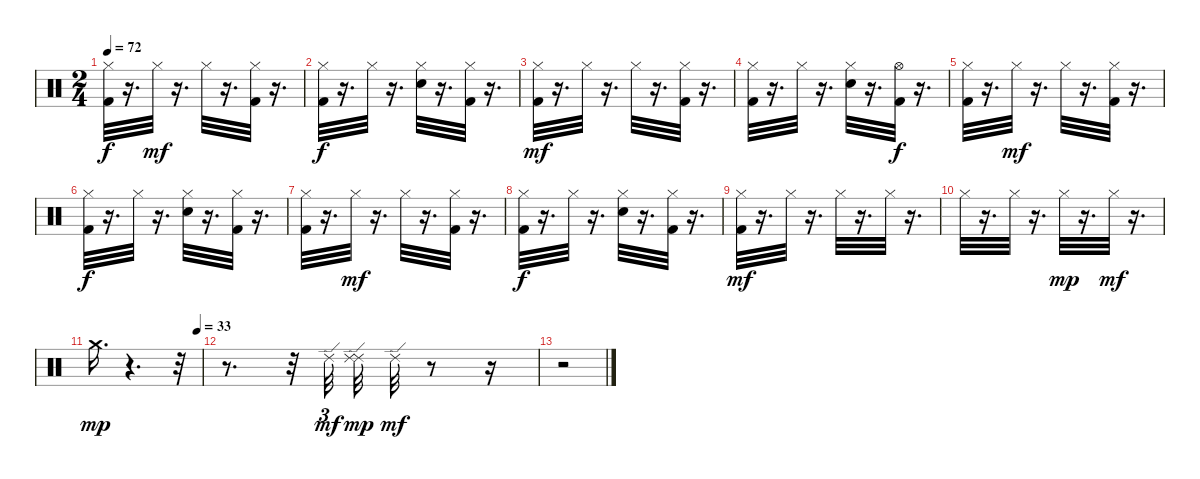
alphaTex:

\track "" {instrument percussion}
\staff {score}
\articulation defaults
\ts (2 4)
\tempo 72
\clef neutral
\ks c
("Hi-Hat (closed)" "Kick (hit) 2").32{dy f} r.16{d} "Hi-Hat (closed)".32{dy mf} r.16{d} "Hi-Hat (closed)".32 r.16{d} ("Hi-Hat (closed)" "Kick (hit) 2").32 r.16{d} |
("Hi-Hat (closed)" "Kick (hit) 2").32{dy f} r.16{d} "Hi-Hat (closed)".32 r.16{d} ("Hi-Hat (closed)" "Snare (hit) 2").32 r.16{d} ("Kick (hit) 2" "Hi-Hat (closed)").32 r.16{d} |
("Kick (hit) 2" "Hi-Hat (closed)").32{dy mf} r.16{d} "Hi-Hat (closed)".32 r.16{d} "Hi-Hat (closed)".32 r.16{d} ("Hi-Hat (closed)" "Kick (hit) 2").32 r.16{d} |
("Hi-Hat (closed)" "Kick (hit) 2").32 r.16{d} "Hi-Hat (closed)".32 r.16{d} ("Hi-Hat (closed)" "Snare (hit) 2").32 r.16{d} ("Hi-Hat (open)" "Kick (hit) 2").32{dy f} r.16{d} |
("Hi-Hat (closed)" "Kick (hit) 2").32 r.16{d} "Hi-Hat (closed)".32{dy mf} r.16{d} "Hi-Hat (closed)".32 r.16{d} ("Hi-Hat (closed)" "Kick (hit) 2").32 r.16{d} |
("Hi-Hat (closed)" "Kick (hit) 2").32{dy f} r.16{d} "Hi-Hat (closed)".32 r.16{d} ("Hi-Hat (closed)" "Snare (hit) 2").32 r.16{d} ("Kick (hit) 2" "Hi-Hat (closed)").32 r.16{d} |
("Hi-Hat (closed)" "Kick (hit) 2").32 r.16{d} "Hi-Hat (closed)".32{dy mf} r.16{d} "Hi-Hat (closed)".32 r.16{d} ("Hi-Hat (closed)" "Kick (hit) 2").32 r.16{d} |
("Hi-Hat (closed)" "Kick (hit) 2").32{dy f} r.16{d} "Hi-Hat (closed)".32 r.16{d} ("Hi-Hat (closed)" "Snare (hit) 2").32 r.16{d} ("Kick (hit) 2" "Hi-Hat (closed)").32 r.16{d} |
("Kick (hit) 2" "Hi-Hat (closed)").32{dy mf} r.16{d} "Hi-Hat (closed)".32 r.16{d} "Hi-Hat (closed)".32 r.16{d} "Hi-Hat (closed)".32 r.16{d} |
"Hi-Hat (closed)".32 r.16{d} "Hi-Hat (closed)".32 r.16{d} "Hi-Hat (closed)".32{dy mp} r.16{d} "Hi-Hat (closed)".32{dy mf} r.16{d} |
\tempo (33 0.9583333333333334)
"Crash medium (hit)".16{d dy mp} r.4{d} r.32 |
r.8{d} r.32 "Ride (edge) 2".32{tu (3 2) dy mf} ("Ride (edge) 2" "Ride (edge) 2").32{dy mp} "Ride (edge) 2".32{dy mf} r.8 r.16 |
r.2
